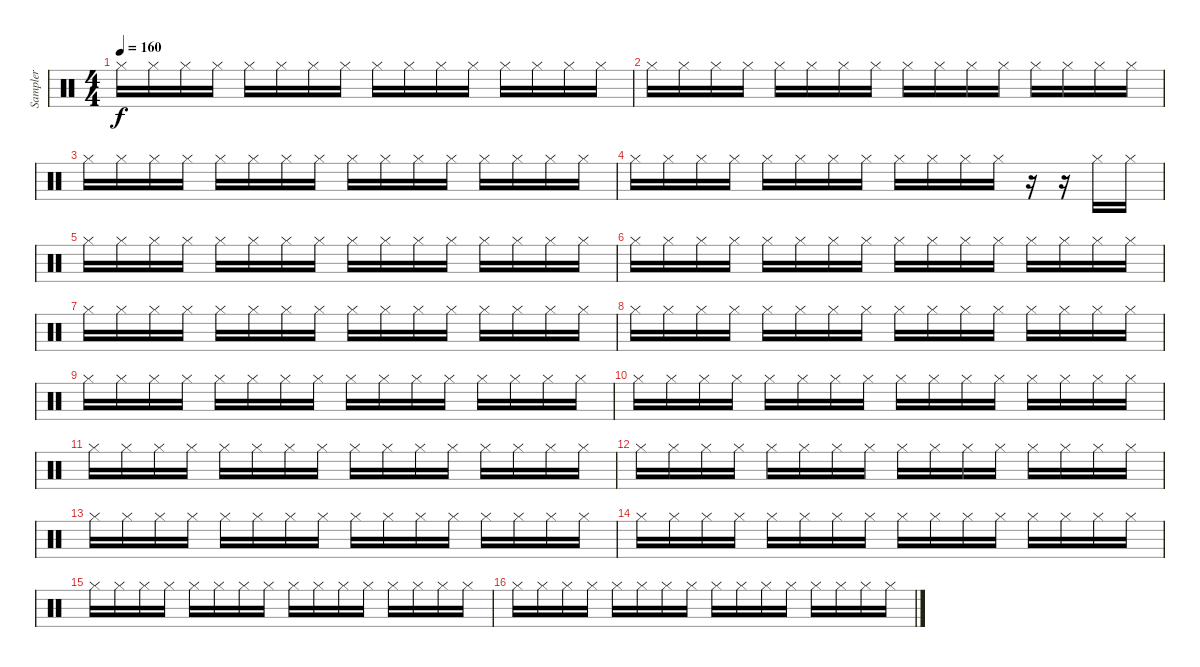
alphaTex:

\track ("Sampler" "Sampler") {instrument percussion}
\staff {score}
\articulation defaults
\ts (4 4)
\tempo 160
\clef neutral
\ks c "Hi-Hat (closed)".16{dy f} "Hi-Hat (closed)".16 "Hi-Hat (closed)".16 "Hi-Hat (closed)".16 "Hi-Hat (closed)".16 "Hi-Hat (closed)".16 "Hi-Hat (closed)".16 "Hi-Hat (closed)".16 "Hi-Hat (closed)".16 "Hi-Hat (closed)".16 "Hi-Hat (closed)".16 "Hi-Hat (closed)".16 "Hi-Hat (closed)".16 "Hi-Hat (closed)".16 "Hi-Hat (closed)".16 "Hi-Hat (closed)".16
|
"Hi-Hat (closed)".16 "Hi-Hat (closed)".16 "Hi-Hat (closed)".16 "Hi-Hat (closed)".16 "Hi-Hat (closed)".16 "Hi-Hat (closed)".16 "Hi-Hat (closed)".16 "Hi-Hat (closed)".16 "Hi-Hat (closed)".16 "Hi-Hat (closed)".16 "Hi-Hat (closed)".16 "Hi-Hat (closed)".16 "Hi-Hat (closed)".16 "Hi-Hat (closed)".16 "Hi-Hat (closed)".16 "Hi-Hat (closed)".16 |
"Hi-Hat (closed)".16 "Hi-Hat (closed)".16 "Hi-Hat (closed)".16 "Hi-Hat (closed)".16 "Hi-Hat (closed)".16 "Hi-Hat (closed)".16 "Hi-Hat (closed)".16 "Hi-Hat (closed)".16 "Hi-Hat (closed)".16 "Hi-Hat (closed)".16 "Hi-Hat (closed)".16 "Hi-Hat (closed)".16 "Hi-Hat (closed)".16 "Hi-Hat (closed)".16 "Hi-Hat (closed)".16 "Hi-Hat (closed)".16 |
"Hi-Hat (closed)".16 "Hi-Hat (closed)".16 "Hi-Hat (closed)".16 "Hi-Hat (closed)".16 "Hi-Hat (closed)".16 "Hi-Hat (closed)".16 "Hi-Hat (closed)".16 "Hi-Hat (closed)".16 "Hi-Hat (closed)".16 "Hi-Hat (closed)".16 "Hi-Hat (closed)".16 "Hi-Hat (closed)".16 r.16 r.16 "Hi-Hat (closed)".16 "Hi-Hat (closed)".16 |
"Hi-Hat (closed)".16 "Hi-Hat (closed)".16 "Hi-Hat (closed)".16 "Hi-Hat (closed)".16 "Hi-Hat (closed)".16 "Hi-Hat (closed)".16 "Hi-Hat (closed)".16 "Hi-Hat (closed)".16 "Hi-Hat (closed)".16 "Hi-Hat (closed)".16 "Hi-Hat (closed)".16 "Hi-Hat (closed)".16 "Hi-Hat (closed)".16 "Hi-Hat (closed)".16 "Hi-Hat (closed)".16 "Hi-Hat (closed)".16 |
"Hi-Hat (closed)".16 "Hi-Hat (closed)".16 "Hi-Hat (closed)".16 "Hi-Hat (closed)".16 "Hi-Hat (closed)".16 "Hi-Hat (closed)".16 "Hi-Hat (closed)".16 "Hi-Hat (closed)".16 "Hi-Hat (closed)".16 "Hi-Hat (closed)".16 "Hi-Hat (closed)".16 "Hi-Hat (closed)".16 "Hi-Hat (closed)".16 "Hi-Hat (closed)".16 "Hi-Hat (closed)".16 "Hi-Hat (closed)".16 |
"Hi-Hat (closed)".16 "Hi-Hat (closed)".16 "Hi-Hat (closed)".16 "Hi-Hat (closed)".16 "Hi-Hat (closed)".16 "Hi-Hat (closed)".16 "Hi-Hat (closed)".16 "Hi-Hat (closed)".16 "Hi-Hat (closed)".16 "Hi-Hat (closed)".16 "Hi-Hat (closed)".16 "Hi-Hat (closed)".16 "Hi-Hat (closed)".16 "Hi-Hat (closed)".16 "Hi-Hat (closed)".16 "Hi-Hat (closed)".16 |
"Hi-Hat (closed)".16 "Hi-Hat (closed)".16 "Hi-Hat (closed)".16 "Hi-Hat (closed)".16 "Hi-Hat (closed)".16 "Hi-Hat (closed)".16 "Hi-Hat (closed)".16 "Hi-Hat (closed)".16 "Hi-Hat (closed)".16 "Hi-Hat (closed)".16 "Hi-Hat (closed)".16 "Hi-Hat (closed)".16 "Hi-Hat (closed)".16 "Hi-Hat (closed)".16 "Hi-Hat (closed)".16 "Hi-Hat (closed)".16 |
"Hi-Hat (closed)".16 "Hi-Hat (closed)".16 "Hi-Hat (closed)".16 "Hi-Hat (closed)".16 "Hi-Hat (closed)".16 "Hi-Hat (closed)".16 "Hi-Hat (closed)".16 "Hi-Hat (closed)".16 "Hi-Hat (closed)".16 "Hi-Hat (closed)".16 "Hi-Hat (closed)".16 "Hi-Hat (closed)".16 "Hi-Hat (closed)".16 "Hi-Hat (closed)".16 "Hi-Hat (closed)".16 "Hi-Hat (closed)".16 |
"Hi-Hat (closed)".16 "Hi-Hat (closed)".16 "Hi-Hat (closed)".16 "Hi-Hat (closed)".16 "Hi-Hat (closed)".16 "Hi-Hat (closed)".16 "Hi-Hat (closed)".16 "Hi-Hat (closed)".16 "Hi-Hat (closed)".16 "Hi-Hat (closed)".16 "Hi-Hat (closed)".16 "Hi-Hat (closed)".16 "Hi-Hat (closed)".16 "Hi-Hat (closed)".16 "Hi-Hat (closed)".16 "Hi-Hat (closed)".16 |
"Hi-Hat (closed)".16 "Hi-Hat (closed)".16 "Hi-Hat (closed)".16 "Hi-Hat (closed)".16 "Hi-Hat (closed)".16 "Hi-Hat (closed)".16 "Hi-Hat (closed)".16 "Hi-Hat (closed)".16 "Hi-Hat (closed)".16 "Hi-Hat (closed)".16 "Hi-Hat (closed)".16 "Hi-Hat (closed)".16 "Hi-Hat (closed)".16 "Hi-Hat (closed)".16 "Hi-Hat (closed)".16 "Hi-Hat (closed)".16 |
"Hi-Hat (closed)".16 "Hi-Hat (closed)".16 "Hi-Hat (closed)".16 "Hi-Hat (closed)".16 "Hi-Hat (closed)".16 "Hi-Hat (closed)".16 "Hi-Hat (closed)".16 "Hi-Hat (closed)".16 "Hi-Hat (closed)".16 "Hi-Hat (closed)".16 "Hi-Hat (closed)".16 "Hi-Hat (closed)".16 "Hi-Hat (closed)".16 "Hi-Hat (closed)".16 "Hi-Hat (closed)".16 "Hi-Hat (closed)".16 |
"Hi-Hat (closed)".16 "Hi-Hat (closed)".16 "Hi-Hat (closed)".16 "Hi-Hat (closed)".16 "Hi-Hat (closed)".16 "Hi-Hat (closed)".16 "Hi-Hat (closed)".16 "Hi-Hat (closed)".16 "Hi-Hat (closed)".16 "Hi-Hat (closed)".16 "Hi-Hat (closed)".16 "Hi-Hat (closed)".16 "Hi-Hat (closed)".16 "Hi-Hat (closed)".16 "Hi-Hat (closed)".16 "Hi-Hat (closed)".16 |
"Hi-Hat (closed)".16 "Hi-Hat (closed)".16 "Hi-Hat (closed)".16 "Hi-Hat (closed)".16 "Hi-Hat (closed)".16 "Hi-Hat (closed)".16 "Hi-Hat (closed)".16 "Hi-Hat (closed)".16 "Hi-Hat (closed)".16 "Hi-Hat (closed)".16 "Hi-Hat (closed)".16 "Hi-Hat (closed)".16 "Hi-Hat (closed)".16 "Hi-Hat (closed)".16 "Hi-Hat (closed)".16 "Hi-Hat (closed)".16 |
"Hi-Hat (closed)".16 "Hi-Hat (closed)".16 "Hi-Hat (closed)".16 "Hi-Hat (closed)".16 "Hi-Hat (closed)".16 "Hi-Hat (closed)".16 "Hi-Hat (closed)".16 "Hi-Hat (closed)".16 "Hi-Hat (closed)".16 "Hi-Hat (closed)".16 "Hi-Hat (closed)".16 "Hi-Hat (closed)".16 "Hi-Hat (closed)".16 "Hi-Hat (closed)".16 "Hi-Hat (closed)".16 "Hi-Hat (closed)".16 |
"Hi-Hat (closed)".16 "Hi-Hat (closed)".16 "Hi-Hat (closed)".16 "Hi-Hat (closed)".16 "Hi-Hat (closed)".16 "Hi-Hat (closed)".16 "Hi-Hat (closed)".16 "Hi-Hat (closed)".16 "Hi-Hat (closed)".16 "Hi-Hat (closed)".16 "Hi-Hat (closed)".16 "Hi-Hat (closed)".16 "Hi-Hat (closed)".16 "Hi-Hat (closed)".16 "Hi-Hat (closed)".16 "Hi-Hat (closed)".16
